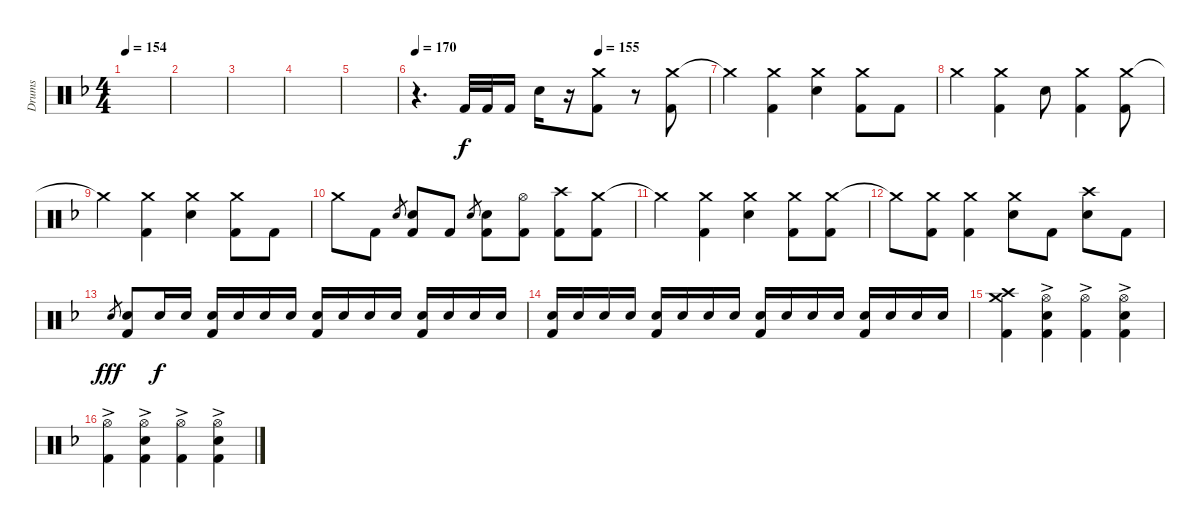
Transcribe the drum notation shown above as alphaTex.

\track ("Drums" "Drums") {instrument percussion}
\staff {score}
\articulation defaults
\ts (4 4)
\tempo 154
\clef neutral
\ks dminor
|
|
|
|
|
\tempo 170
\tempo (155 0.625)
r.4{d} "Kick (hit) 2".32{dy f} "Kick (hit) 2".32 "Kick (hit) 2".16 "Snare (hit) 2".16 r.16 ("Crash medium (hit)" "Kick (hit) 2").8 r.8 ("Crash medium (hit)" "Kick (hit) 2").8 |
"Crash medium (hit)"{t}.4 ("Crash medium (hit)" "Kick (hit) 2").4 ("Crash medium (hit)" "Snare (hit) 2").4 ("Crash medium (hit)" "Kick (hit) 2").8 "Kick (hit) 2".8 |
"Crash medium (hit)".4 ("Crash medium (hit)" "Kick (hit) 2").4 "Snare (hit) 2".8 ("Crash medium (hit)" "Kick (hit) 2").4 ("Crash medium (hit)" "Kick (hit) 2").8 |
"Crash medium (hit)"{t}.4 ("Crash medium (hit)" "Kick (hit) 2").4 ("Crash medium (hit)" "Snare (hit) 2").4 ("Crash medium (hit)" "Kick (hit) 2").8 "Kick (hit) 2".8 |
"Crash medium (hit)".8 "Kick (hit) 2".8 "Snare (hit) 2".8{gr} ("Snare (hit) 2" "Kick (hit) 2").8 "Kick (hit) 2".8 "Snare (hit) 2".8{gr} ("Snare (hit) 2" "Kick (hit) 2").8 ("Hi-Hat (open)" "Kick (hit) 2").8 ("Crash high (hit)" "Kick (hit) 2").8 ("Crash medium (hit)" "Kick (hit) 2").8 |
"Crash medium (hit)"{t}.4 ("Crash medium (hit)" "Kick (hit) 2").4 ("Crash medium (hit)" "Snare (hit) 2").4 ("Crash medium (hit)" "Kick (hit) 2").8 ("Crash medium (hit)" "Kick (hit) 2").8 |
"Crash medium (hit)"{t}.8 ("Crash medium (hit)" "Kick (hit) 2").8 ("Crash medium (hit)" "Kick (hit) 2").4 ("Crash medium (hit)" "Snare (hit) 2").8 "Kick (hit) 2".8 ("Crash high (hit)" "Snare (hit) 2").8 "Kick (hit) 2".8 |
"Snare (hit) 2".8{gr dy fff} ("Snare (hit) 2" "Kick (hit) 2").8 "Snare (hit) 2".16{dy f volume 6} "Snare (hit) 2".16{volume 14} ("Snare (hit) 2" "Kick (hit) 2").16 "Snare (hit) 2".16 "Snare (hit) 2".16 "Snare (hit) 2".16 ("Snare (hit) 2" "Kick (hit) 2").16 "Snare (hit) 2".16 "Snare (hit) 2".16 "Snare (hit) 2".16 ("Snare (hit) 2" "Kick (hit) 2").16 "Snare (hit) 2".16 "Snare (hit) 2".16 "Snare (hit) 2".16 |
("Snare (hit) 2" "Kick (hit) 2").16 "Snare (hit) 2".16 "Snare (hit) 2".16 "Snare (hit) 2".16 ("Snare (hit) 2" "Kick (hit) 2").16 "Snare (hit) 2".16 "Snare (hit) 2".16 "Snare (hit) 2".16 ("Snare (hit) 2" "Kick (hit) 2").16 "Snare (hit) 2".16 "Snare (hit) 2".16 "Snare (hit) 2".16 ("Snare (hit) 2" "Kick (hit) 2").16 "Snare (hit) 2".16 "Snare (hit) 2".16 "Snare (hit) 2".16 |
("Crash high (hit)" "Crash medium (hit)" "Kick (hit) 2").4 ("Hi-Hat (open)"{ac} "Snare (hit) 2" "Kick (hit) 2").4 ("Hi-Hat (open)"{ac} "Kick (hit) 2").4 ("Hi-Hat (open)"{ac} "Snare (hit) 2" "Kick (hit) 2").4 |
("Hi-Hat (open)"{ac} "Kick (hit) 2").4 ("Hi-Hat (open)"{ac} "Snare (hit) 2" "Kick (hit) 2").4 ("Hi-Hat (open)"{ac} "Kick (hit) 2").4 ("Hi-Hat (open)"{ac} "Snare (hit) 2" "Kick (hit) 2").4
